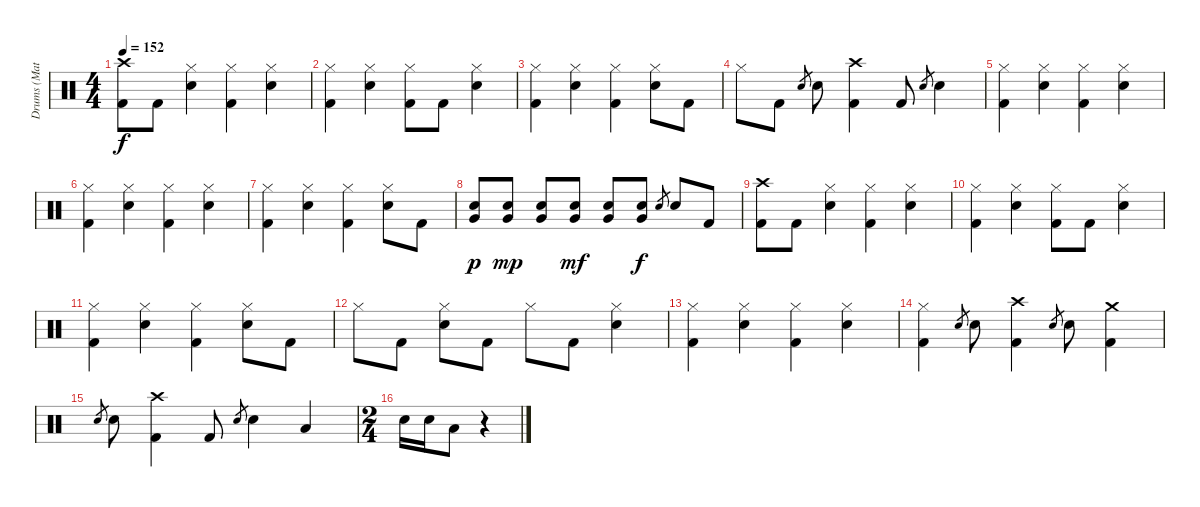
\track ("Drums (Matt)" "Drums (Mat") {instrument percussion}
\staff {score}
\articulation defaults
\ts (4 4)
\tempo 152
\clef neutral
\ks c
("Crash high (hit)" "Kick (hit) 2").8{dy f} "Kick (hit) 2".8 ("Hi-Hat (closed)" "Snare (hit) 2").4 ("Hi-Hat (closed)" "Kick (hit) 2").4 ("Hi-Hat (closed)" "Snare (hit) 2").4 |
("Hi-Hat (closed)" "Kick (hit) 2").4 ("Hi-Hat (closed)" "Snare (hit) 2").4 ("Hi-Hat (closed)" "Kick (hit) 2").8 "Kick (hit) 2".8 ("Hi-Hat (closed)" "Snare (hit) 2").4 |
("Hi-Hat (closed)" "Kick (hit) 2").4 ("Hi-Hat (closed)" "Snare (hit) 2").4 ("Hi-Hat (closed)" "Kick (hit) 2").4 ("Hi-Hat (closed)" "Snare (hit) 2").8 "Kick (hit) 2".8 |
"Hi-Hat (closed)".8 "Kick (hit) 2".8 "Snare (hit) 2".8{gr} "Snare (hit) 2".8 ("Crash high (hit)" "Kick (hit) 2").4 "Kick (hit) 2".8 "Snare (hit) 2".8{gr} "Snare (hit) 2".4 |
("Hi-Hat (closed)" "Kick (hit) 2").4 ("Hi-Hat (closed)" "Snare (hit) 2").4 ("Hi-Hat (closed)" "Kick (hit) 2").4 ("Hi-Hat (closed)" "Snare (hit) 2").4 |
("Hi-Hat (closed)" "Kick (hit) 2").4 ("Hi-Hat (closed)" "Snare (hit) 2").4 ("Hi-Hat (closed)" "Kick (hit) 2").4 ("Hi-Hat (closed)" "Snare (hit) 2").4 |
("Hi-Hat (closed)" "Kick (hit) 2").4 ("Hi-Hat (closed)" "Snare (hit) 2").4 ("Hi-Hat (closed)" "Kick (hit) 2").4 ("Hi-Hat (closed)" "Snare (hit) 2").8 "Kick (hit) 2".8 |
("Very Low Tom (hit)" "Snare (hit) 2").8{dy p} ("Very Low Tom (hit)" "Snare (hit) 2").8{dy mp} ("Very Low Tom (hit)" "Snare (hit) 2").8 ("Very Low Tom (hit)" "Snare (hit) 2").8{dy mf} ("Very Low Tom (hit)" "Snare (hit) 2").8 ("Very Low Tom (hit)" "Snare (hit) 2").8{dy f} "Snare (hit) 2".8{gr} "Snare (hit) 2".8 "Kick (hit) 2".8 |
("Crash high (hit)" "Kick (hit) 2").8 "Kick (hit) 2".8 ("Hi-Hat (closed)" "Snare (hit) 2").4 ("Hi-Hat (closed)" "Kick (hit) 2").4 ("Hi-Hat (closed)" "Snare (hit) 2").4 |
("Hi-Hat (closed)" "Kick (hit) 2").4 ("Hi-Hat (closed)" "Snare (hit) 2").4 ("Hi-Hat (closed)" "Kick (hit) 2").8 "Kick (hit) 2".8 ("Hi-Hat (closed)" "Snare (hit) 2").4 |
("Hi-Hat (closed)" "Kick (hit) 2").4 ("Hi-Hat (closed)" "Snare (hit) 2").4 ("Hi-Hat (closed)" "Kick (hit) 2").4 ("Hi-Hat (closed)" "Snare (hit) 2").8 "Kick (hit) 2".8 |
"Hi-Hat (closed)".8 "Kick (hit) 2".8 ("Hi-Hat (closed)" "Snare (hit) 2").8 "Kick (hit) 2".8 "Hi-Hat (closed)".8 "Kick (hit) 2".8 ("Hi-Hat (closed)" "Snare (hit) 2").4 |
("Hi-Hat (closed)" "Kick (hit) 2").4 ("Hi-Hat (closed)" "Snare (hit) 2").4 ("Hi-Hat (closed)" "Kick (hit) 2").4 ("Hi-Hat (closed)" "Snare (hit) 2").4 |
("Hi-Hat (closed)" "Kick (hit) 2").4 "Snare (hit) 2".8{gr} "Snare (hit) 2".8 ("Crash high (hit)" "Kick (hit) 2").4 "Snare (hit) 2".8{gr} "Snare (hit) 2".8 ("Crash medium (hit)" "Kick (hit) 2").4 |
"Snare (hit) 2".8{gr} "Snare (hit) 2".8 ("Crash high (hit)" "Kick (hit) 2").4 "Kick (hit) 2".8 "Snare (hit) 2".8{gr} "Snare (hit) 2".4 "Low Tom (hit)".4 |
\ts (2 4)
"Snare (hit) 2".16 "Snare (hit) 2".16 "Low Tom (hit)".8 r.4
